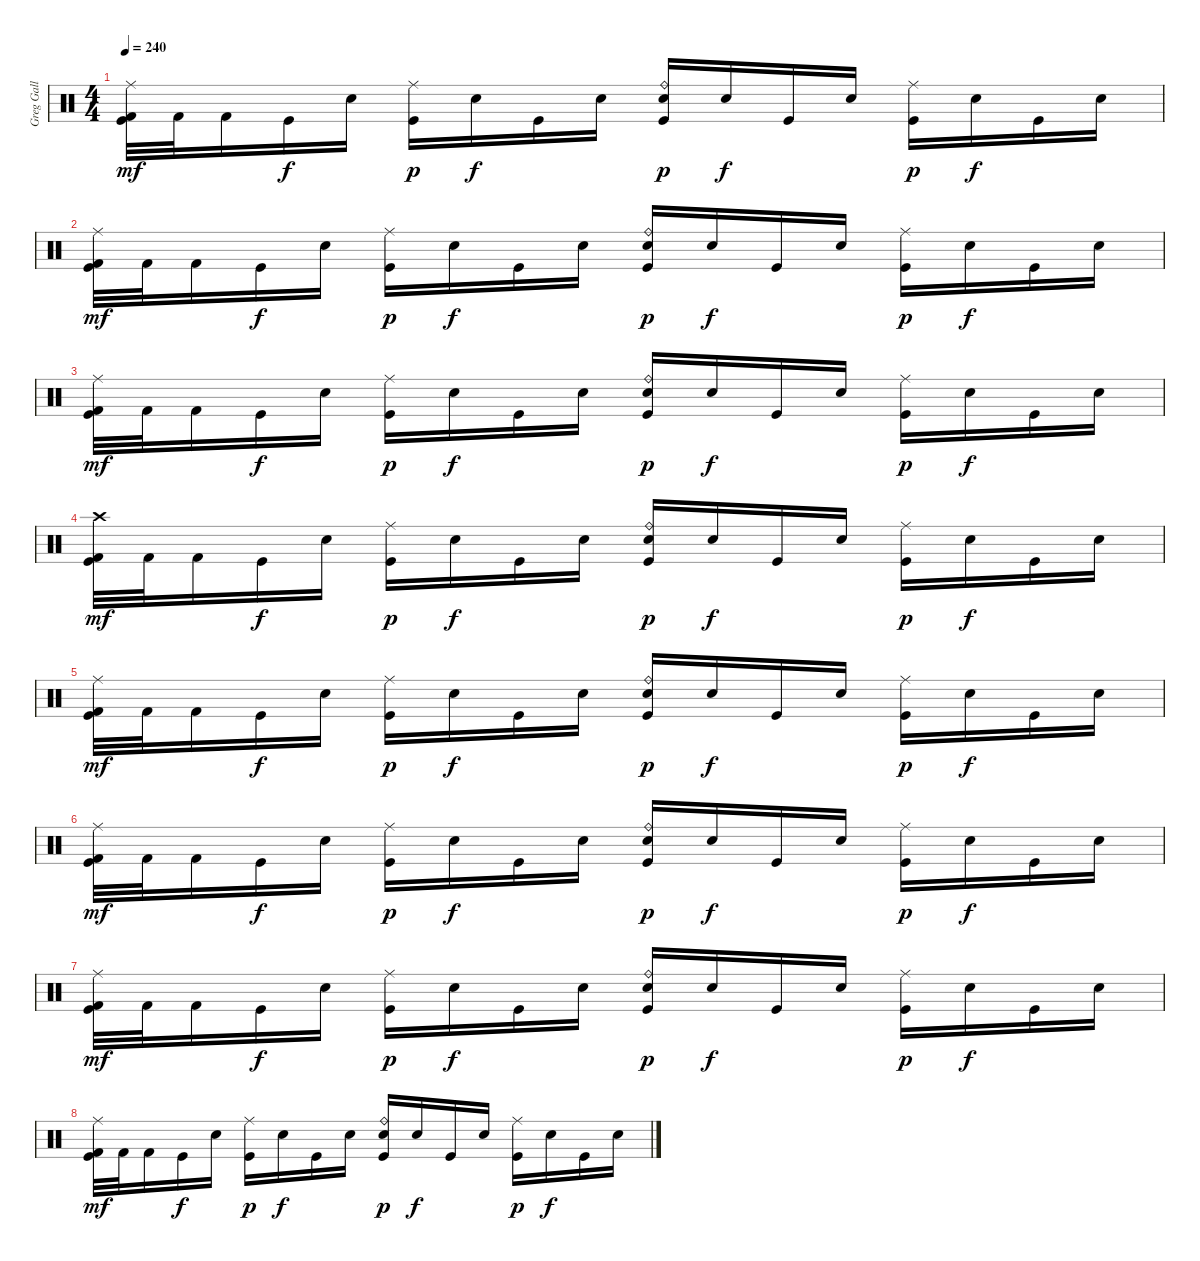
\track ("Greg Gall - Drums" "Greg Gall ") {instrument percussion}
\staff {score}
\articulation defaults
\ts (4 4)
\tempo 240
\clef neutral
\ks c
("Ride (middle)" "Kick (hit) 2" "Kick (hit)").32{dy mf} "Kick (hit) 2".32 "Kick (hit) 2".16 "Kick (hit)".16{dy f} "Snare (hit)".16 ("Ride (middle)" "Kick (hit)").16{dy p} "Snare (hit)".16{dy f} "Kick (hit)".16 "Snare (hit)".16 ("Ride (bell)" "Electric Snare (hit)" "Kick (hit)").16{dy p} "Snare (hit)".16{dy f} "Kick (hit)".16 "Snare (hit)".16 ("Ride (middle)" "Kick (hit)").16{dy p} "Snare (hit)".16{dy f} "Kick (hit)".16 "Snare (hit)".16 |
("Ride (middle)" "Kick (hit) 2" "Kick (hit)").32{dy mf} "Kick (hit) 2".32 "Kick (hit) 2".16 "Kick (hit)".16{dy f} "Snare (hit)".16 ("Ride (middle)" "Kick (hit)").16{dy p} "Snare (hit)".16{dy f} "Kick (hit)".16 "Snare (hit)".16 ("Ride (bell)" "Electric Snare (hit)" "Kick (hit)").16{dy p} "Snare (hit)".16{dy f} "Kick (hit)".16 "Snare (hit)".16 ("Ride (middle)" "Kick (hit)").16{dy p} "Snare (hit)".16{dy f} "Kick (hit)".16 "Snare (hit)".16 |
("Ride (middle)" "Kick (hit) 2" "Kick (hit)").32{dy mf} "Kick (hit) 2".32 "Kick (hit) 2".16 "Kick (hit)".16{dy f} "Snare (hit)".16 ("Ride (middle)" "Kick (hit)").16{dy p} "Snare (hit)".16{dy f} "Kick (hit)".16 "Snare (hit)".16 ("Ride (bell)" "Electric Snare (hit)" "Kick (hit)").16{dy p} "Snare (hit)".16{dy f} "Kick (hit)".16 "Snare (hit)".16 ("Ride (middle)" "Kick (hit)").16{dy p} "Snare (hit)".16{dy f} "Kick (hit)".16 "Snare (hit)".16 |
("Crash high (hit)" "Kick (hit) 2" "Kick (hit)").32{dy mf} "Kick (hit) 2".32 "Kick (hit) 2".16 "Kick (hit)".16{dy f} "Snare (hit)".16 ("Ride (middle)" "Kick (hit)").16{dy p} "Snare (hit)".16{dy f} "Kick (hit)".16 "Snare (hit)".16 ("Ride (bell)" "Electric Snare (hit)" "Kick (hit)").16{dy p} "Snare (hit)".16{dy f} "Kick (hit)".16 "Snare (hit)".16 ("Ride (middle)" "Kick (hit)").16{dy p} "Snare (hit)".16{dy f} "Kick (hit)".16 "Snare (hit)".16 |
("Ride (middle)" "Kick (hit) 2" "Kick (hit)").32{dy mf} "Kick (hit) 2".32 "Kick (hit) 2".16 "Kick (hit)".16{dy f} "Snare (hit)".16 ("Ride (middle)" "Kick (hit)").16{dy p} "Snare (hit)".16{dy f} "Kick (hit)".16 "Snare (hit)".16 ("Ride (bell)" "Electric Snare (hit)" "Kick (hit)").16{dy p} "Snare (hit)".16{dy f} "Kick (hit)".16 "Snare (hit)".16 ("Ride (middle)" "Kick (hit)").16{dy p} "Snare (hit)".16{dy f} "Kick (hit)".16 "Snare (hit)".16 |
("Ride (middle)" "Kick (hit) 2" "Kick (hit)").32{dy mf} "Kick (hit) 2".32 "Kick (hit) 2".16 "Kick (hit)".16{dy f} "Snare (hit)".16 ("Ride (middle)" "Kick (hit)").16{dy p} "Snare (hit)".16{dy f} "Kick (hit)".16 "Snare (hit)".16 ("Ride (bell)" "Electric Snare (hit)" "Kick (hit)").16{dy p} "Snare (hit)".16{dy f} "Kick (hit)".16 "Snare (hit)".16 ("Ride (middle)" "Kick (hit)").16{dy p} "Snare (hit)".16{dy f} "Kick (hit)".16 "Snare (hit)".16 |
("Ride (middle)" "Kick (hit) 2" "Kick (hit)").32{dy mf} "Kick (hit) 2".32 "Kick (hit) 2".16 "Kick (hit)".16{dy f} "Snare (hit)".16 ("Ride (middle)" "Kick (hit)").16{dy p} "Snare (hit)".16{dy f} "Kick (hit)".16 "Snare (hit)".16 ("Ride (bell)" "Electric Snare (hit)" "Kick (hit)").16{dy p} "Snare (hit)".16{dy f} "Kick (hit)".16 "Snare (hit)".16 ("Ride (middle)" "Kick (hit)").16{dy p} "Snare (hit)".16{dy f} "Kick (hit)".16 "Snare (hit)".16 |
("Ride (middle)" "Kick (hit) 2" "Kick (hit)").32{dy mf} "Kick (hit) 2".32 "Kick (hit) 2".16 "Kick (hit)".16{dy f} "Snare (hit)".16 ("Ride (middle)" "Kick (hit)").16{dy p} "Snare (hit)".16{dy f} "Kick (hit)".16 "Snare (hit)".16 ("Ride (bell)" "Electric Snare (hit)" "Kick (hit)").16{dy p} "Snare (hit)".16{dy f} "Kick (hit)".16 "Snare (hit)".16 ("Ride (middle)" "Kick (hit)").16{dy p} "Snare (hit)".16{dy f} "Kick (hit)".16 "Snare (hit)".16
